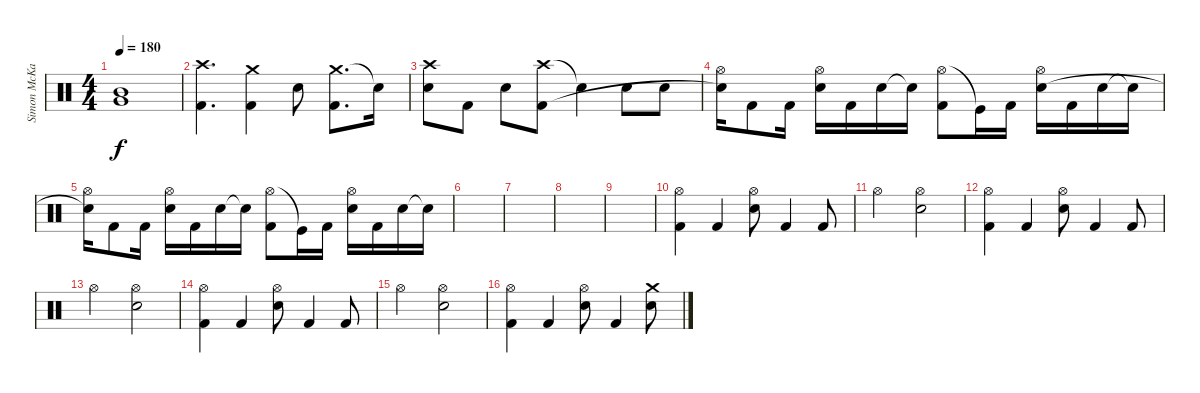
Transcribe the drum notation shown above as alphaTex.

\track ("Simon McKay" "Simon McKa") {instrument percussion}
\staff {score}
\articulation defaults
\ts (4 4)
\tempo 180
\clef neutral
\ks c
("Very Low Tom (hit)" "Mid Tom (hit)").1{dy f} |
("Crash high (hit)" "Kick (hit) 2").4{d} ("Crash medium (hit)" "Kick (hit) 2").4 "Snare (hit) 2".8 ("Crash medium (hit)" "Kick (hit) 2").8{d} "Snare (hit)"{t}.16 |
("Crash high (hit)" "Snare (hit) 2").8 "Kick (hit) 2".8 "Snare (hit) 2".8 ("Crash high (hit)" "Kick (hit) 2").8 "Snare (hit)"{t}.4 "Snare (hit) 2".8 "Snare (hit) 2".8 |
("Hi-Hat (open)" "Snare (hit)"{t}).16 "Kick (hit) 2".8 "Kick (hit) 2".16 ("Hi-Hat (open)" "Snare (hit) 2").16 "Kick (hit) 2".16 "Snare (hit) 2".16 "Snare (hit)"{t}.16 ("Hi-Hat (open)" "Kick (hit) 2").8 "Kick (hit)"{t}.16 "Kick (hit) 2".16 ("Hi-Hat (open)" "Snare (hit) 2").16 "Kick (hit) 2".16 "Snare (hit) 2".16 "Snare (hit)"{t}.16 |
("Hi-Hat (open)" "Snare (hit)"{t}).16 "Kick (hit) 2".8 "Kick (hit) 2".16 ("Hi-Hat (open)" "Snare (hit) 2").16 "Kick (hit) 2".16 "Snare (hit) 2".16 "Snare (hit)"{t}.16 ("Hi-Hat (open)" "Kick (hit) 2").8 "Kick (hit)"{t}.16 "Kick (hit) 2".16 ("Hi-Hat (open)" "Snare (hit) 2").16 "Kick (hit) 2".16 "Snare (hit) 2".16 "Snare (hit)"{t}.16 |
|
|
|
|
("Hi-Hat (open)" "Kick (hit) 2").4 "Kick (hit) 2".4 ("Hi-Hat (open)" "Snare (hit) 2").8 "Kick (hit) 2".4 "Kick (hit) 2".8 |
"Hi-Hat (open)".2 ("Hi-Hat (open)" "Snare (hit) 2").2 |
("Hi-Hat (open)" "Kick (hit) 2").4 "Kick (hit) 2".4 ("Hi-Hat (open)" "Snare (hit) 2").8 "Kick (hit) 2".4 "Kick (hit) 2".8 |
"Hi-Hat (open)".2 ("Hi-Hat (open)" "Snare (hit) 2").2 |
("Hi-Hat (open)" "Kick (hit) 2").4 "Kick (hit) 2".4 ("Hi-Hat (open)" "Snare (hit) 2").8 "Kick (hit) 2".4 "Kick (hit) 2".8 |
"Hi-Hat (open)".2 ("Hi-Hat (open)" "Snare (hit) 2").2 |
("Hi-Hat (open)" "Kick (hit) 2").4 "Kick (hit) 2".4 ("Hi-Hat (open)" "Snare (hit) 2").8 "Kick (hit) 2".4 ("Crash medium (hit)" "Snare (hit) 2").8
